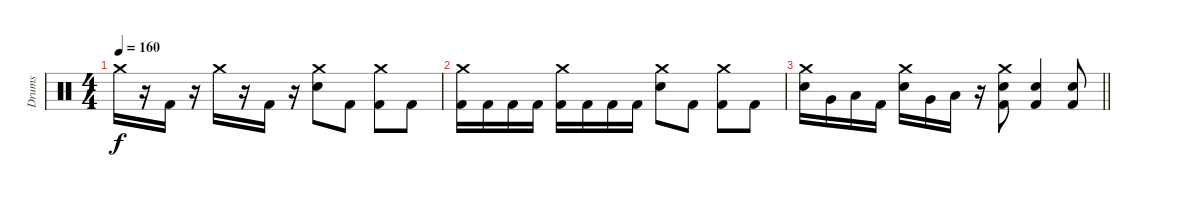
\track ("Drums" "Drums") {instrument percussion}
\staff {score}
\articulation defaults
\ts (4 4)
\tempo 160
\clef neutral
\ks c "Crash medium (hit)".16{dy f}
r.16 "Kick (hit) 2".16 r.16 "Crash medium (hit)".16 r.16 "Kick (hit) 2".16 r.16 ("Crash medium (hit)" "Snare (hit) 2").8 "Kick (hit) 2".8 ("Crash medium (hit)" "Kick (hit) 2").8 "Kick (hit) 2".8 |
("Crash medium (hit)" "Kick (hit) 2").16 "Kick (hit) 2".16 "Kick (hit) 2".16 "Kick (hit) 2".16 ("Crash medium (hit)" "Kick (hit) 2").16 "Kick (hit) 2".16 "Kick (hit) 2".16 "Kick (hit) 2".16 ("Crash medium (hit)" "Snare (hit) 2").8 "Kick (hit) 2".8 ("Crash medium (hit)" "Kick (hit) 2").8 "Kick (hit) 2".8 |
\barLineRight lightlight
("Crash medium (hit)" "Snare (hit) 2").16 "Very Low Tom (hit)".16 "Low Floor Tom (hit)".16 "Kick (hit) 2".16 ("Crash medium (hit)" "Snare (hit) 2").16 "Very Low Tom (hit)".16 "Low Floor Tom (hit)".16 r.16 ("Crash medium (hit)" "Snare (hit) 2" "Kick (hit) 2").8 ("Snare (hit) 2" "Kick (hit) 2").4 ("Snare (hit) 2" "Kick (hit) 2").8
